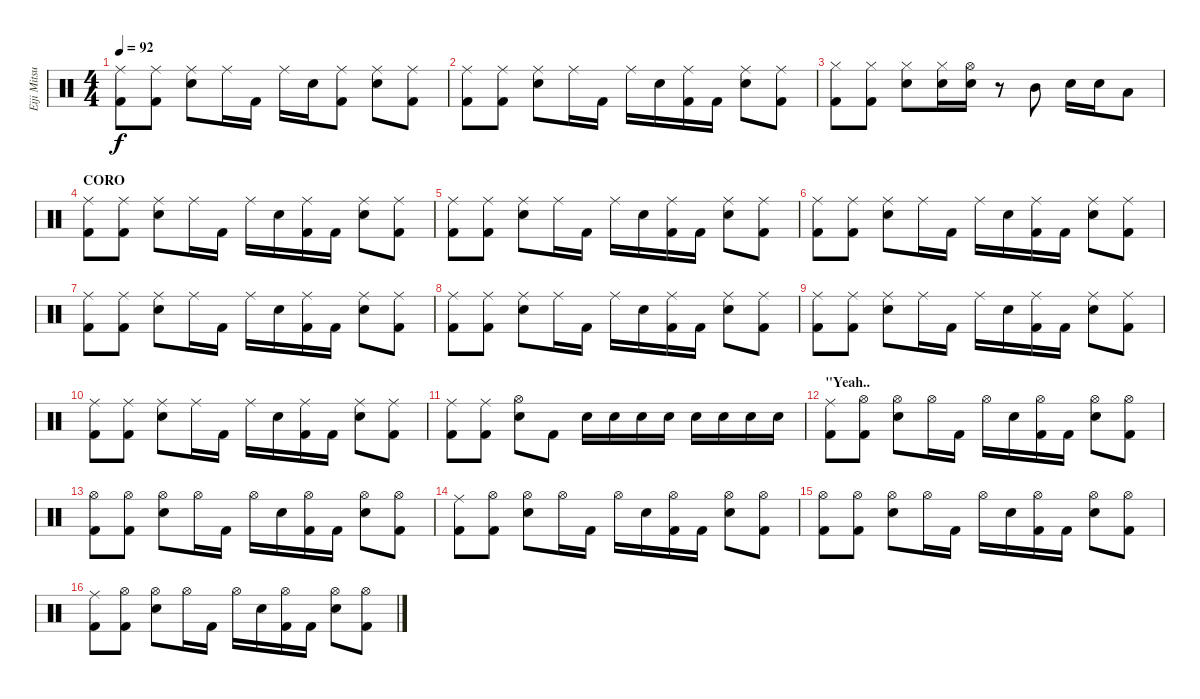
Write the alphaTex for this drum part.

\track ("Eiji Mitsuzono " "Eiji Mitsu") {instrument percussion}
\staff {score}
\articulation defaults
\ts (4 4)
\tempo 92
\clef neutral
\ks c
("Ride (middle)" "Kick (hit) 2").8{dy f} ("Ride (middle)" "Kick (hit) 2").8 ("Ride (middle)" "Snare (hit) 2").8 "Ride (middle)".16 "Kick (hit) 2".16 "Ride (middle)".16 "Snare (hit) 2".16 ("Ride (middle)" "Kick (hit) 2").8 ("Ride (middle)" "Snare (hit) 2").8 ("Ride (middle)" "Kick (hit) 2").8 |
("Ride (middle)" "Kick (hit) 2").8 ("Ride (middle)" "Kick (hit) 2").8 ("Ride (middle)" "Snare (hit) 2").8 "Ride (middle)".16 "Kick (hit) 2".16 "Ride (middle)".16 "Snare (hit) 2".16 ("Ride (middle)" "Kick (hit) 2").16 "Kick (hit) 2".16 ("Ride (middle)" "Snare (hit) 2").8 ("Ride (middle)" "Kick (hit) 2").8 |
("Hi-Hat (closed)" "Kick (hit) 2").8 ("Hi-Hat (closed)" "Kick (hit) 2").8 ("Hi-Hat (closed)" "Snare (hit) 2").8 ("Hi-Hat (closed)" "Snare (hit) 2").16 ("Hi-Hat (open)" "Snare (hit) 2").16 r.8 "Mid Tom (hit)".8 "Snare (hit) 2".16 "Snare (hit) 2".16 "Low Tom (hit)".8 |
\section ("" "CORO")
("Ride (middle)" "Kick (hit) 2").8 ("Ride (middle)" "Kick (hit) 2").8 ("Ride (middle)" "Snare (hit) 2").8 "Ride (middle)".16 "Kick (hit) 2".16 "Ride (middle)".16 "Snare (hit) 2".16 ("Ride (middle)" "Kick (hit) 2").16 "Kick (hit) 2".16 ("Ride (middle)" "Snare (hit) 2").8 ("Ride (middle)" "Kick (hit) 2").8 |
("Ride (middle)" "Kick (hit) 2").8 ("Ride (middle)" "Kick (hit) 2").8 ("Ride (middle)" "Snare (hit) 2").8 "Ride (middle)".16 "Kick (hit) 2".16 "Ride (middle)".16 "Snare (hit) 2".16 ("Ride (middle)" "Kick (hit) 2").16 "Kick (hit) 2".16 ("Ride (middle)" "Snare (hit) 2").8 ("Ride (middle)" "Kick (hit) 2").8 |
("Ride (middle)" "Kick (hit) 2").8 ("Ride (middle)" "Kick (hit) 2").8 ("Ride (middle)" "Snare (hit) 2").8 "Ride (middle)".16 "Kick (hit) 2".16 "Ride (middle)".16 "Snare (hit) 2".16 ("Ride (middle)" "Kick (hit) 2").16 "Kick (hit) 2".16 ("Ride (middle)" "Snare (hit) 2").8 ("Ride (middle)" "Kick (hit) 2").8 |
("Ride (middle)" "Kick (hit) 2").8 ("Ride (middle)" "Kick (hit) 2").8 ("Ride (middle)" "Snare (hit) 2").8 "Ride (middle)".16 "Kick (hit) 2".16 "Ride (middle)".16 "Snare (hit) 2".16 ("Ride (middle)" "Kick (hit) 2").16 "Kick (hit) 2".16 ("Ride (middle)" "Snare (hit) 2").8 ("Ride (middle)" "Kick (hit) 2").8 |
("Ride (middle)" "Kick (hit) 2").8 ("Ride (middle)" "Kick (hit) 2").8 ("Ride (middle)" "Snare (hit) 2").8 "Ride (middle)".16 "Kick (hit) 2".16 "Ride (middle)".16 "Snare (hit) 2".16 ("Ride (middle)" "Kick (hit) 2").16 "Kick (hit) 2".16 ("Ride (middle)" "Snare (hit) 2").8 ("Ride (middle)" "Kick (hit) 2").8 |
("Ride (middle)" "Kick (hit) 2").8 ("Ride (middle)" "Kick (hit) 2").8 ("Ride (middle)" "Snare (hit) 2").8 "Ride (middle)".16 "Kick (hit) 2".16 "Ride (middle)".16 "Snare (hit) 2".16 ("Ride (middle)" "Kick (hit) 2").16 "Kick (hit) 2".16 ("Ride (middle)" "Snare (hit) 2").8 ("Ride (middle)" "Kick (hit) 2").8 |
("Ride (middle)" "Kick (hit) 2").8 ("Ride (middle)" "Kick (hit) 2").8 ("Ride (middle)" "Snare (hit) 2").8 "Ride (middle)".16 "Kick (hit) 2".16 "Ride (middle)".16 "Snare (hit) 2".16 ("Ride (middle)" "Kick (hit) 2").16 "Kick (hit) 2".16 ("Ride (middle)" "Snare (hit) 2").8 ("Ride (middle)" "Kick (hit) 2").8 |
("Ride (middle)" "Kick (hit) 2").8 ("Ride (middle)" "Kick (hit) 2").8 ("Hi-Hat (open)" "Snare (hit) 2").8 "Kick (hit) 2".8 "Snare (hit) 2".16 "Snare (hit) 2".16 "Snare (hit) 2".16 "Snare (hit) 2".16 "Snare (hit) 2".16 "Snare (hit) 2".16 "Snare (hit) 2".16 "Snare (hit) 2".16 |
\section ("" "\"Yeah..")
("Ride (middle)" "Kick (hit) 2").8 ("Hi-Hat (open)" "Kick (hit) 2").8 ("Hi-Hat (open)" "Snare (hit) 2").8 "Hi-Hat (open)".16 "Kick (hit) 2".16 "Hi-Hat (open)".16 "Snare (hit) 2".16 ("Hi-Hat (open)" "Kick (hit) 2").16 "Kick (hit) 2".16 ("Hi-Hat (open)" "Snare (hit) 2").8 ("Hi-Hat (open)" "Kick (hit) 2").8 |
("Hi-Hat (open)" "Kick (hit) 2").8 ("Hi-Hat (open)" "Kick (hit) 2").8 ("Hi-Hat (open)" "Snare (hit) 2").8 "Hi-Hat (open)".16 "Kick (hit) 2".16 "Hi-Hat (open)".16 "Snare (hit) 2".16 ("Hi-Hat (open)" "Kick (hit) 2").16 "Kick (hit) 2".16 ("Hi-Hat (open)" "Snare (hit) 2").8 ("Hi-Hat (open)" "Kick (hit) 2").8 |
("Ride (middle)" "Kick (hit) 2").8 ("Hi-Hat (open)" "Kick (hit) 2").8 ("Hi-Hat (open)" "Snare (hit) 2").8 "Hi-Hat (open)".16 "Kick (hit) 2".16 "Hi-Hat (open)".16 "Snare (hit) 2".16 ("Hi-Hat (open)" "Kick (hit) 2").16 "Kick (hit) 2".16 ("Hi-Hat (open)" "Snare (hit) 2").8 ("Hi-Hat (open)" "Kick (hit) 2").8 |
("Hi-Hat (open)" "Kick (hit) 2").8 ("Hi-Hat (open)" "Kick (hit) 2").8 ("Hi-Hat (open)" "Snare (hit) 2").8 "Hi-Hat (open)".16 "Kick (hit) 2".16 "Hi-Hat (open)".16 "Snare (hit) 2".16 ("Hi-Hat (open)" "Kick (hit) 2").16 "Kick (hit) 2".16 ("Hi-Hat (open)" "Snare (hit) 2").8 ("Hi-Hat (open)" "Kick (hit) 2").8 |
("Ride (middle)" "Kick (hit) 2").8 ("Hi-Hat (open)" "Kick (hit) 2").8 ("Hi-Hat (open)" "Snare (hit) 2").8 "Hi-Hat (open)".16 "Kick (hit) 2".16 "Hi-Hat (open)".16 "Snare (hit) 2".16 ("Hi-Hat (open)" "Kick (hit) 2").16 "Kick (hit) 2".16 ("Hi-Hat (open)" "Snare (hit) 2").8 ("Hi-Hat (open)" "Kick (hit) 2").8
